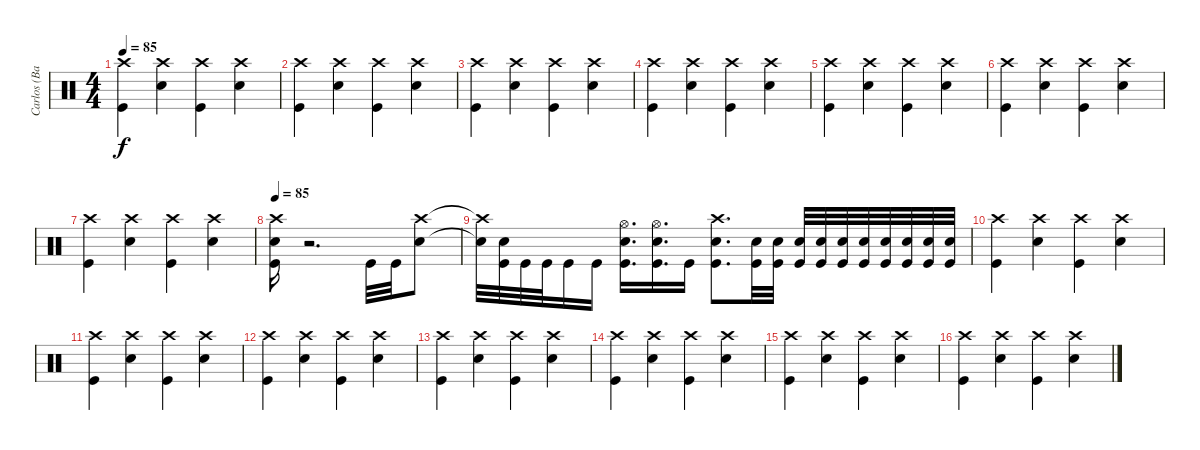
\track ("Carlos (Batería)" "Carlos (Ba") {instrument percussion}
\staff {score}
\articulation defaults
\ts (4 4)
\tempo 85
\clef neutral
\ks c
("Crash high (hit)" "Kick (hit)").4{dy f} ("Crash high (hit)" "Snare (hit) 2").4 ("Crash high (hit)" "Kick (hit)").4 ("Crash high (hit)" "Snare (hit) 2").4 |
("Crash high (hit)" "Kick (hit)").4 ("Crash high (hit)" "Snare (hit) 2").4 ("Crash high (hit)" "Kick (hit)").4 ("Crash high (hit)" "Snare (hit) 2").4 |
("Crash high (hit)" "Kick (hit)").4 ("Crash high (hit)" "Snare (hit) 2").4 ("Crash high (hit)" "Kick (hit)").4 ("Crash high (hit)" "Snare (hit) 2").4 |
("Crash high (hit)" "Kick (hit)").4 ("Crash high (hit)" "Snare (hit) 2").4 ("Crash high (hit)" "Kick (hit)").4 ("Crash high (hit)" "Snare (hit) 2").4 |
("Crash high (hit)" "Kick (hit)").4 ("Crash high (hit)" "Snare (hit) 2").4 ("Crash high (hit)" "Kick (hit)").4 ("Crash high (hit)" "Snare (hit) 2").4 |
("Crash high (hit)" "Kick (hit)").4 ("Crash high (hit)" "Snare (hit) 2").4 ("Crash high (hit)" "Kick (hit)").4 ("Crash high (hit)" "Snare (hit) 2").4 |
("Crash high (hit)" "Kick (hit)").4 ("Crash high (hit)" "Snare (hit) 2").4 ("Crash high (hit)" "Kick (hit)").4 ("Crash high (hit)" "Snare (hit) 2").4 |
\tempo 85
("Snare (hit) 2" "Kick (hit)" "Crash high (hit)").16 r.2{d} "Kick (hit)".32 "Kick (hit)".32 ("Crash high (hit)" "Snare (hit) 2").8 |
("Crash high (hit)"{t} "Snare (hit) 2"{t}).32 ("Snare (hit) 2" "Kick (hit)").32 "Kick (hit)".32 "Kick (hit)".32 "Kick (hit)".16 "Kick (hit)".16 ("Kick (hit)" "Snare (hit) 2" "Hi-Hat (open)").16{d} ("Kick (hit)" "Snare (hit) 2" "Hi-Hat (open)").16{d} "Kick (hit)".16 ("Kick (hit)" "Snare (hit) 2" "Crash high (hit)").8{d} ("Snare (hit) 2" "Kick (hit)").32 ("Snare (hit) 2" "Kick (hit)").32 ("Snare (hit) 2" "Kick (hit)").32 ("Snare (hit) 2" "Kick (hit)").32 ("Snare (hit) 2" "Kick (hit)").32 ("Snare (hit) 2" "Kick (hit)").32 ("Snare (hit) 2" "Kick (hit)").32 ("Snare (hit) 2" "Kick (hit)").32 ("Snare (hit) 2" "Kick (hit)").32 ("Snare (hit) 2" "Kick (hit)").32 |
("Crash high (hit)" "Kick (hit)").4 ("Crash high (hit)" "Snare (hit) 2").4 ("Crash high (hit)" "Kick (hit)").4 ("Crash high (hit)" "Snare (hit) 2").4 |
("Crash high (hit)" "Kick (hit)").4 ("Crash high (hit)" "Snare (hit) 2").4 ("Crash high (hit)" "Kick (hit)").4 ("Crash high (hit)" "Snare (hit) 2").4 |
("Crash high (hit)" "Kick (hit)").4 ("Crash high (hit)" "Snare (hit) 2").4 ("Crash high (hit)" "Kick (hit)").4 ("Crash high (hit)" "Snare (hit) 2").4 |
("Crash high (hit)" "Kick (hit)").4 ("Crash high (hit)" "Snare (hit) 2").4 ("Crash high (hit)" "Kick (hit)").4 ("Crash high (hit)" "Snare (hit) 2").4 |
("Crash high (hit)" "Kick (hit)").4 ("Crash high (hit)" "Snare (hit) 2").4 ("Crash high (hit)" "Kick (hit)").4 ("Crash high (hit)" "Snare (hit) 2").4 |
("Crash high (hit)" "Kick (hit)").4 ("Crash high (hit)" "Snare (hit) 2").4 ("Crash high (hit)" "Kick (hit)").4 ("Crash high (hit)" "Snare (hit) 2").4 |
("Crash high (hit)" "Kick (hit)").4 ("Crash high (hit)" "Snare (hit) 2").4 ("Crash high (hit)" "Kick (hit)").4 ("Crash high (hit)" "Snare (hit) 2").4
